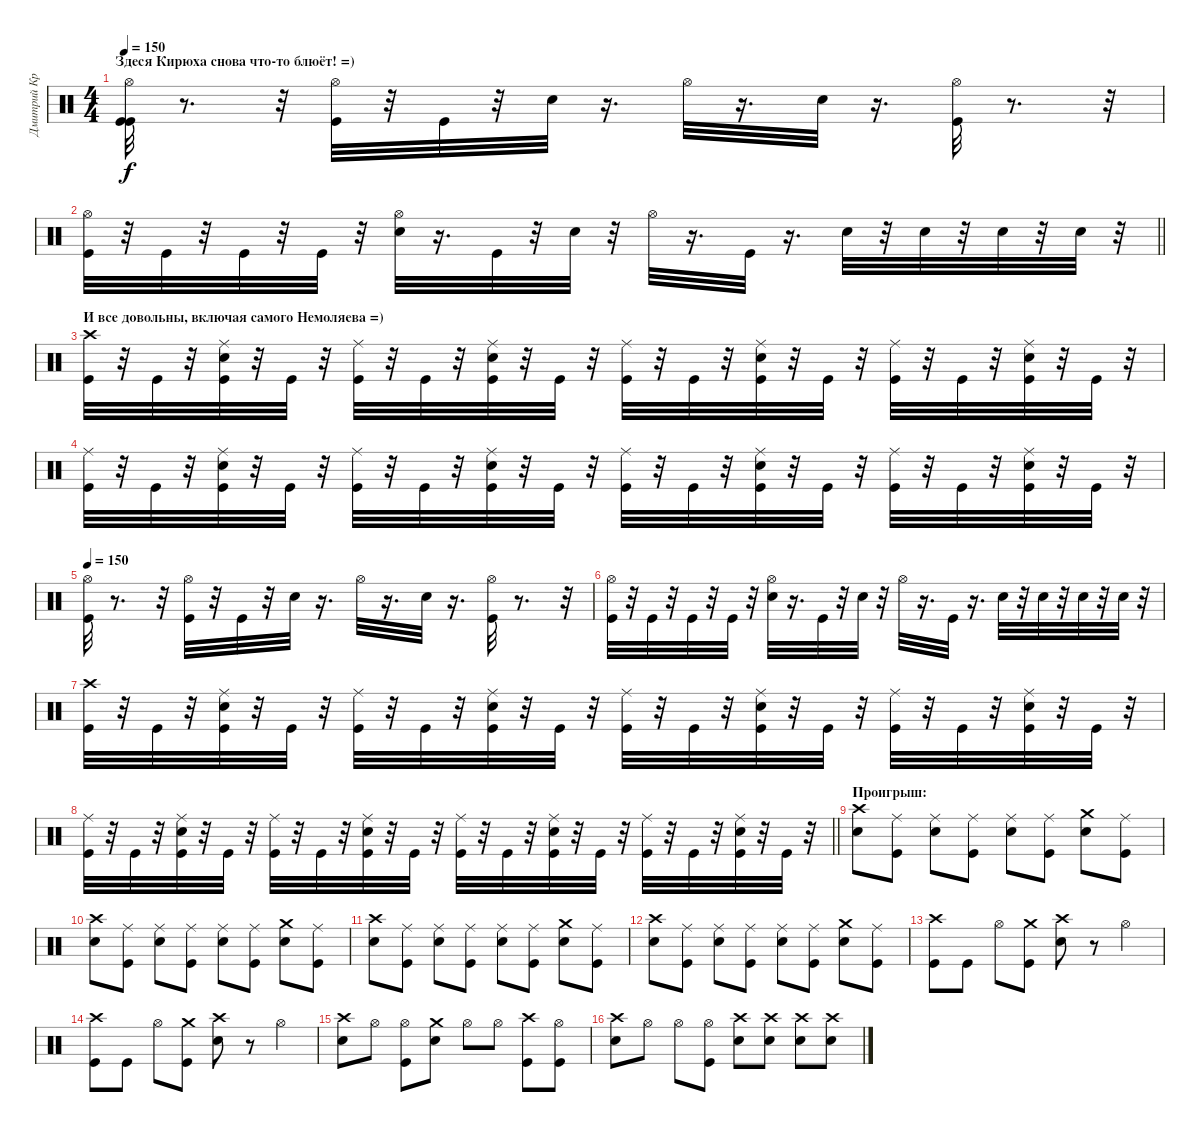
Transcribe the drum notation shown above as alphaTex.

\track ("Дмитрий Кривенков" "Дмитрий Кр") {instrument percussion}
\staff {score}
\articulation defaults
\ts (4 4)
\section ("" "Здеся Кирюха снова что-то блюёт! =)")
\tempo 150
\clef neutral
\ks c
("Hi-Hat (open)" "Kick (hit)" "Kick (hit)").32{dy f} r.8{d} r.32 ("Hi-Hat (open)" "Kick (hit)").32 r.32 "Kick (hit)".32 r.32 "Electric Snare (hit)".32 r.16{d} "Hi-Hat (open)".32 r.16{d} "Electric Snare (hit)".32 r.16{d} ("Hi-Hat (open)" "Kick (hit)").32 r.8{d} r.32 |
\barLineRight lightlight
("Hi-Hat (open)" "Kick (hit)").32 r.32 "Kick (hit)".32 r.32 "Kick (hit)".32 r.32 "Kick (hit)".32 r.32 ("Hi-Hat (open)" "Electric Snare (hit)").32 r.16{d} "Kick (hit)".32 r.32 "Electric Snare (hit)".32 r.32 "Hi-Hat (open)".32 r.16{d} "Kick (hit)".32 r.16{d} "Electric Snare (hit)".32 r.32 "Electric Snare (hit)".32 r.32 "Electric Snare (hit)".32 r.32 "Electric Snare (hit)".32 r.32 |
\section ("" "И все довольны, включая самого Немоляева =)")
("Crash high (hit)" "Kick (hit)").32 r.32 "Kick (hit)".32 r.32 ("Ride (middle)" "Kick (hit)" "Electric Snare (hit)").32 r.32 "Kick (hit)".32 r.32 ("Ride (middle)" "Kick (hit)").32 r.32 "Kick (hit)".32 r.32 ("Ride (middle)" "Electric Snare (hit)" "Kick (hit)").32 r.32 "Kick (hit)".32 r.32 ("Ride (middle)" "Kick (hit)").32 r.32 "Kick (hit)".32 r.32 ("Ride (middle)" "Kick (hit)" "Electric Snare (hit)").32 r.32 "Kick (hit)".32 r.32 ("Ride (middle)" "Kick (hit)").32 r.32 "Kick (hit)".32 r.32 ("Ride (middle)" "Electric Snare (hit)" "Kick (hit)").32 r.32 "Kick (hit)".32 r.32 |
("Ride (middle)" "Kick (hit)").32 r.32 "Kick (hit)".32 r.32 ("Ride (middle)" "Electric Snare (hit)" "Kick (hit)").32 r.32 "Kick (hit)".32 r.32 ("Ride (middle)" "Kick (hit)").32 r.32 "Kick (hit)".32 r.32 ("Ride (middle)" "Electric Snare (hit)" "Kick (hit)").32 r.32 "Kick (hit)".32 r.32 ("Ride (middle)" "Kick (hit)").32 r.32 "Kick (hit)".32 r.32 ("Ride (middle)" "Electric Snare (hit)" "Kick (hit)").32 r.32 "Kick (hit)".32 r.32 ("Ride (middle)" "Kick (hit)").32 r.32 "Kick (hit)".32 r.32 ("Ride (middle)" "Electric Snare (hit)" "Kick (hit)").32 r.32 "Kick (hit)".32 r.32 |
\tempo 150
("Hi-Hat (open)" "Kick (hit)").32 r.8{d} r.32 ("Hi-Hat (open)" "Kick (hit)").32 r.32 "Kick (hit)".32 r.32 "Electric Snare (hit)".32 r.16{d} "Hi-Hat (open)".32 r.16{d} "Electric Snare (hit)".32 r.16{d} ("Hi-Hat (open)" "Kick (hit)").32 r.8{d} r.32 |
("Hi-Hat (open)" "Kick (hit)").32 r.32 "Kick (hit)".32 r.32 "Kick (hit)".32 r.32 "Kick (hit)".32 r.32 ("Hi-Hat (open)" "Electric Snare (hit)").32 r.16{d} "Kick (hit)".32 r.32 "Electric Snare (hit)".32 r.32 "Hi-Hat (open)".32 r.16{d} "Kick (hit)".32 r.16{d} "Electric Snare (hit)".32 r.32 "Electric Snare (hit)".32 r.32 "Electric Snare (hit)".32 r.32 "Electric Snare (hit)".32 r.32 |
("Crash high (hit)" "Kick (hit)").32 r.32 "Kick (hit)".32 r.32 ("Ride (middle)" "Kick (hit)" "Electric Snare (hit)").32 r.32 "Kick (hit)".32 r.32 ("Ride (middle)" "Kick (hit)").32 r.32 "Kick (hit)".32 r.32 ("Ride (middle)" "Electric Snare (hit)" "Kick (hit)").32 r.32 "Kick (hit)".32 r.32 ("Ride (middle)" "Kick (hit)").32 r.32 "Kick (hit)".32 r.32 ("Ride (middle)" "Kick (hit)" "Electric Snare (hit)").32 r.32 "Kick (hit)".32 r.32 ("Ride (middle)" "Kick (hit)").32 r.32 "Kick (hit)".32 r.32 ("Ride (middle)" "Electric Snare (hit)" "Kick (hit)").32 r.32 "Kick (hit)".32 r.32 |
\barLineRight lightlight
("Ride (middle)" "Kick (hit)").32 r.32 "Kick (hit)".32 r.32 ("Ride (middle)" "Electric Snare (hit)" "Kick (hit)").32 r.32 "Kick (hit)".32 r.32 ("Ride (middle)" "Kick (hit)").32 r.32 "Kick (hit)".32 r.32 ("Ride (middle)" "Electric Snare (hit)" "Kick (hit)").32 r.32 "Kick (hit)".32 r.32 ("Ride (middle)" "Kick (hit)").32 r.32 "Kick (hit)".32 r.32 ("Ride (middle)" "Electric Snare (hit)" "Kick (hit)").32 r.32 "Kick (hit)".32 r.32 ("Ride (middle)" "Kick (hit)").32 r.32 "Kick (hit)".32 r.32 ("Ride (middle)" "Electric Snare (hit)" "Kick (hit)").32 r.32 "Kick (hit)".32 r.32 |
\section ("" "Проигрыш:")
("Crash high (hit)" "Electric Snare (hit)").8 ("Ride (middle)" "Kick (hit)").8 ("Ride (middle)" "Electric Snare (hit)").8 ("Ride (middle)" "Kick (hit)").8 ("Electric Snare (hit)" "Ride (middle)").8 ("Ride (middle)" "Kick (hit)").8 ("Electric Snare (hit)" "Crash medium (hit)").8 ("Ride (middle)" "Kick (hit)").8 |
("Electric Snare (hit)" "Crash high (hit)").8 ("Ride (middle)" "Kick (hit)").8 ("Ride (middle)" "Electric Snare (hit)").8 ("Kick (hit)" "Ride (middle)").8 ("Ride (middle)" "Electric Snare (hit)").8 ("Kick (hit)" "Ride (middle)").8 ("Crash medium (hit)" "Electric Snare (hit)").8 ("Ride (middle)" "Kick (hit)").8 |
("Crash high (hit)" "Electric Snare (hit)").8 ("Ride (middle)" "Kick (hit)").8 ("Electric Snare (hit)" "Ride (middle)").8 ("Ride (middle)" "Kick (hit)").8 ("Electric Snare (hit)" "Ride (middle)").8 ("Ride (middle)" "Kick (hit)").8 ("Crash medium (hit)" "Electric Snare (hit)").8 ("Kick (hit)" "Ride (middle)").8 |
("Crash high (hit)" "Electric Snare (hit)").8 ("Kick (hit)" "Ride (middle)").8 ("Electric Snare (hit)" "Ride (middle)").8 ("Kick (hit)" "Ride (middle)").8 ("Ride (middle)" "Electric Snare (hit)").8 ("Ride (middle)" "Kick (hit)").8 ("Crash medium (hit)" "Electric Snare (hit)").8 ("Ride (middle)" "Kick (hit)").8 |
("Crash high (hit)" "Kick (hit)").8 "Kick (hit)".8 "Hi-Hat (open)".8 ("Kick (hit)" "Crash medium (hit)").8 ("Crash high (hit)" "Electric Snare (hit)").8 r.8 "Hi-Hat (open)".4 |
("Crash high (hit)" "Kick (hit)").8 "Kick (hit)".8 "Hi-Hat (open)".8 ("Crash medium (hit)" "Kick (hit)").8 ("Crash high (hit)" "Electric Snare (hit)").8 r.8 "Hi-Hat (open)".4 |
("Electric Snare (hit)" "Crash high (hit)").8 "Hi-Hat (open)".8 ("Kick (hit)" "Hi-Hat (open)").8 ("Crash medium (hit)" "Electric Snare (hit)").8 "Hi-Hat (open)".8 "Hi-Hat (open)".8 ("Crash high (hit)" "Kick (hit)").8 ("Hi-Hat (open)" "Kick (hit)").8 |
("Electric Snare (hit)" "Crash high (hit)").8 "Hi-Hat (open)".8 "Hi-Hat (open)".8 ("Hi-Hat (open)" "Kick (hit)").8 ("Crash high (hit)" "Electric Snare (hit)").8 ("Crash high (hit)" "Electric Snare (hit)").8 ("Crash high (hit)" "Electric Snare (hit)").8 ("Electric Snare (hit)" "Crash high (hit)").8
